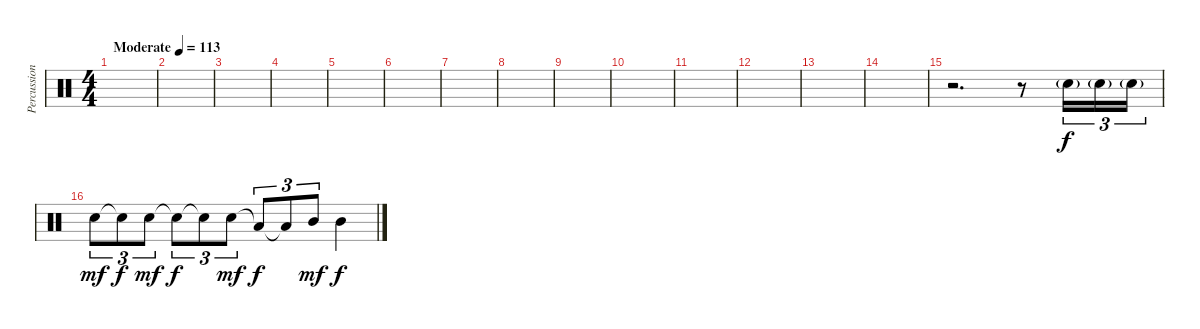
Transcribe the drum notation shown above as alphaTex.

\track ("Percussioni" "Percussion") {instrument percussion}
\staff {score}
\articulation defaults
\ts (4 4)
\tempo (113 "Moderate")
\clef neutral
\ks c
|
|
|
|
|
|
|
|
|
|
|
|
|
|
r.2{d} r.8 "Electric Snare (hit)"{g}.16{tu (3 2)} "Electric Snare (hit)"{g}.16{tu (3 2)} "Electric Snare (hit)"{g}.16{tu (3 2)} |
"Electric Snare (hit)".8{tu (3 2) dy mf} "Snare (hit)"{t}.8{tu (3 2) dy f} "Electric Snare (hit)".8{tu (3 2) dy mf} "Electric Snare (hit)"{t}.8{tu (3 2) dy f} "Snare (hit)"{t}.8{tu (3 2)} "Electric Snare (hit)".8{tu (3 2) dy mf} "Low Tom (hit)"{t}.8{tu (3 2) dy f} "Low Tom (hit)"{t}.8{tu (3 2)} "Mid Tom (hit)".8{tu (3 2) dy mf} "Mid Tom (hit)".4{dy f}
